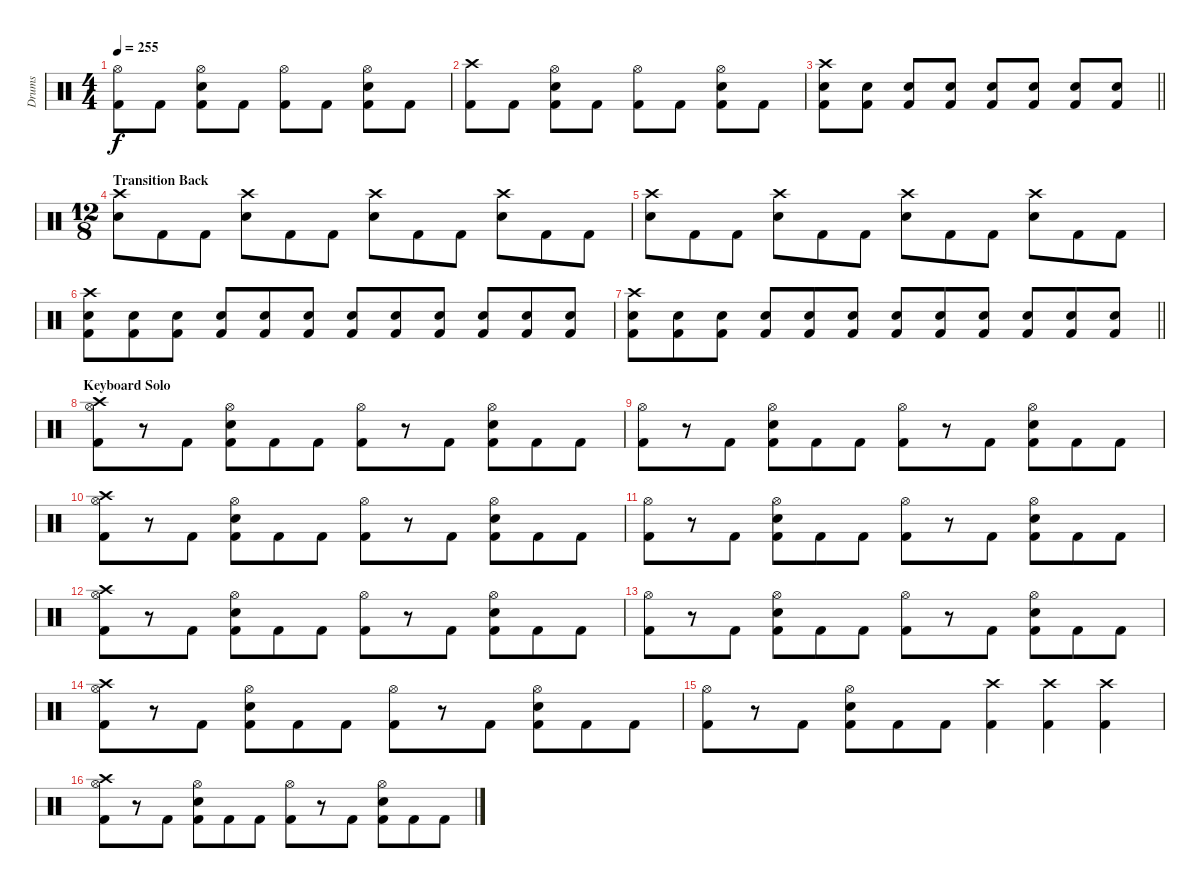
\track ("Drums" "Drums") {instrument percussion}
\staff {score}
\articulation defaults
\ts (4 4)
\tempo 255
\clef neutral
\ks c
("Hi-Hat (open)" "Kick (hit) 2").8{dy f} "Kick (hit) 2".8 ("Hi-Hat (open)" "Snare (hit) 2" "Kick (hit) 2").8 "Kick (hit) 2".8 ("Hi-Hat (open)" "Kick (hit) 2").8 "Kick (hit) 2".8 ("Hi-Hat (open)" "Snare (hit) 2" "Kick (hit) 2").8 "Kick (hit) 2".8 |
("Crash high (hit)" "Kick (hit) 2").8 "Kick (hit) 2".8 ("Hi-Hat (open)" "Snare (hit) 2" "Kick (hit) 2").8 "Kick (hit) 2".8 ("Hi-Hat (open)" "Kick (hit) 2").8 "Kick (hit) 2".8 ("Hi-Hat (open)" "Snare (hit) 2" "Kick (hit) 2").8 "Kick (hit) 2".8 |
\barLineRight lightlight
("Crash high (hit)" "Snare (hit) 2" "Kick (hit) 2").8 ("Snare (hit) 2" "Kick (hit) 2").8 ("Snare (hit) 2" "Kick (hit) 2").8 ("Snare (hit) 2" "Kick (hit) 2").8 ("Snare (hit) 2" "Kick (hit) 2").8 ("Snare (hit) 2" "Kick (hit) 2").8 ("Snare (hit) 2" "Kick (hit) 2").8 ("Snare (hit) 2" "Kick (hit) 2").8 |
\ts (12 8)
\section ("" "Transition Back")
("Crash high (hit)" "Snare (hit) 2").8 "Kick (hit) 2".8 "Kick (hit) 2".8 ("Crash high (hit)" "Snare (hit) 2").8 "Kick (hit) 2".8 "Kick (hit) 2".8 ("Crash high (hit)" "Snare (hit) 2").8 "Kick (hit) 2".8 "Kick (hit) 2".8 ("Crash high (hit)" "Snare (hit) 2").8 "Kick (hit) 2".8 "Kick (hit) 2".8 |
("Crash high (hit)" "Snare (hit) 2").8 "Kick (hit) 2".8 "Kick (hit) 2".8 ("Crash high (hit)" "Snare (hit) 2").8 "Kick (hit) 2".8 "Kick (hit) 2".8 ("Crash high (hit)" "Snare (hit) 2").8 "Kick (hit) 2".8 "Kick (hit) 2".8 ("Crash high (hit)" "Snare (hit) 2").8 "Kick (hit) 2".8 "Kick (hit) 2".8 |
("Crash high (hit)" "Snare (hit) 2" "Kick (hit) 2").8 ("Snare (hit) 2" "Kick (hit) 2").8 ("Snare (hit) 2" "Kick (hit) 2").8 ("Snare (hit) 2" "Kick (hit) 2").8 ("Snare (hit) 2" "Kick (hit) 2").8 ("Snare (hit) 2" "Kick (hit) 2").8 ("Snare (hit) 2" "Kick (hit) 2").8 ("Snare (hit) 2" "Kick (hit) 2").8 ("Snare (hit) 2" "Kick (hit) 2").8 ("Snare (hit) 2" "Kick (hit) 2").8 ("Snare (hit) 2" "Kick (hit) 2").8 ("Snare (hit) 2" "Kick (hit) 2").8 |
\barLineRight lightlight
("Crash high (hit)" "Snare (hit) 2" "Kick (hit) 2").8 ("Snare (hit) 2" "Kick (hit) 2").8 ("Snare (hit) 2" "Kick (hit) 2").8 ("Snare (hit) 2" "Kick (hit) 2").8 ("Snare (hit) 2" "Kick (hit) 2").8 ("Snare (hit) 2" "Kick (hit) 2").8 ("Snare (hit) 2" "Kick (hit) 2").8 ("Snare (hit) 2" "Kick (hit) 2").8 ("Snare (hit) 2" "Kick (hit) 2").8 ("Snare (hit) 2" "Kick (hit) 2").8 ("Snare (hit) 2" "Kick (hit) 2").8 ("Snare (hit) 2" "Kick (hit) 2").8 |
\section ("" "Keyboard Solo")
("Crash high (hit)" "Hi-Hat (open)" "Kick (hit) 2").8 r.8 "Kick (hit) 2".8 ("Hi-Hat (open)" "Snare (hit) 2" "Kick (hit) 2").8 "Kick (hit) 2".8 "Kick (hit) 2".8 ("Hi-Hat (open)" "Kick (hit) 2").8 r.8 "Kick (hit) 2".8 ("Hi-Hat (open)" "Snare (hit) 2" "Kick (hit) 2").8 "Kick (hit) 2".8 "Kick (hit) 2".8 |
("Hi-Hat (open)" "Kick (hit) 2").8 r.8 "Kick (hit) 2".8 ("Hi-Hat (open)" "Snare (hit) 2" "Kick (hit) 2").8 "Kick (hit) 2".8 "Kick (hit) 2".8 ("Hi-Hat (open)" "Kick (hit) 2").8 r.8 "Kick (hit) 2".8 ("Hi-Hat (open)" "Snare (hit) 2" "Kick (hit) 2").8 "Kick (hit) 2".8 "Kick (hit) 2".8 |
("Crash high (hit)" "Hi-Hat (open)" "Kick (hit) 2").8 r.8 "Kick (hit) 2".8 ("Hi-Hat (open)" "Snare (hit) 2" "Kick (hit) 2").8 "Kick (hit) 2".8 "Kick (hit) 2".8 ("Hi-Hat (open)" "Kick (hit) 2").8 r.8 "Kick (hit) 2".8 ("Hi-Hat (open)" "Snare (hit) 2" "Kick (hit) 2").8 "Kick (hit) 2".8 "Kick (hit) 2".8 |
("Hi-Hat (open)" "Kick (hit) 2").8 r.8 "Kick (hit) 2".8 ("Hi-Hat (open)" "Snare (hit) 2" "Kick (hit) 2").8 "Kick (hit) 2".8 "Kick (hit) 2".8 ("Hi-Hat (open)" "Kick (hit) 2").8 r.8 "Kick (hit) 2".8 ("Hi-Hat (open)" "Snare (hit) 2" "Kick (hit) 2").8 "Kick (hit) 2".8 "Kick (hit) 2".8 |
("Crash high (hit)" "Hi-Hat (open)" "Kick (hit) 2").8 r.8 "Kick (hit) 2".8 ("Hi-Hat (open)" "Snare (hit) 2" "Kick (hit) 2").8 "Kick (hit) 2".8 "Kick (hit) 2".8 ("Hi-Hat (open)" "Kick (hit) 2").8 r.8 "Kick (hit) 2".8 ("Hi-Hat (open)" "Snare (hit) 2" "Kick (hit) 2").8 "Kick (hit) 2".8 "Kick (hit) 2".8 |
("Hi-Hat (open)" "Kick (hit) 2").8 r.8 "Kick (hit) 2".8 ("Hi-Hat (open)" "Snare (hit) 2" "Kick (hit) 2").8 "Kick (hit) 2".8 "Kick (hit) 2".8 ("Hi-Hat (open)" "Kick (hit) 2").8 r.8 "Kick (hit) 2".8 ("Hi-Hat (open)" "Snare (hit) 2" "Kick (hit) 2").8 "Kick (hit) 2".8 "Kick (hit) 2".8 |
("Crash high (hit)" "Hi-Hat (open)" "Kick (hit) 2").8 r.8 "Kick (hit) 2".8 ("Hi-Hat (open)" "Snare (hit) 2" "Kick (hit) 2").8 "Kick (hit) 2".8 "Kick (hit) 2".8 ("Hi-Hat (open)" "Kick (hit) 2").8 r.8 "Kick (hit) 2".8 ("Hi-Hat (open)" "Snare (hit) 2" "Kick (hit) 2").8 "Kick (hit) 2".8 "Kick (hit) 2".8 |
("Hi-Hat (open)" "Kick (hit) 2").8 r.8 "Kick (hit) 2".8 ("Hi-Hat (open)" "Snare (hit) 2" "Kick (hit) 2").8 "Kick (hit) 2".8 "Kick (hit) 2".8 ("Crash high (hit)" "Kick (hit) 2").4 ("Crash high (hit)" "Kick (hit) 2").4 ("Crash high (hit)" "Kick (hit) 2").4 |
("Crash high (hit)" "Hi-Hat (open)" "Kick (hit) 2").8 r.8 "Kick (hit) 2".8 ("Hi-Hat (open)" "Snare (hit) 2" "Kick (hit) 2").8 "Kick (hit) 2".8 "Kick (hit) 2".8 ("Hi-Hat (open)" "Kick (hit) 2").8 r.8 "Kick (hit) 2".8 ("Hi-Hat (open)" "Snare (hit) 2" "Kick (hit) 2").8 "Kick (hit) 2".8 "Kick (hit) 2".8
